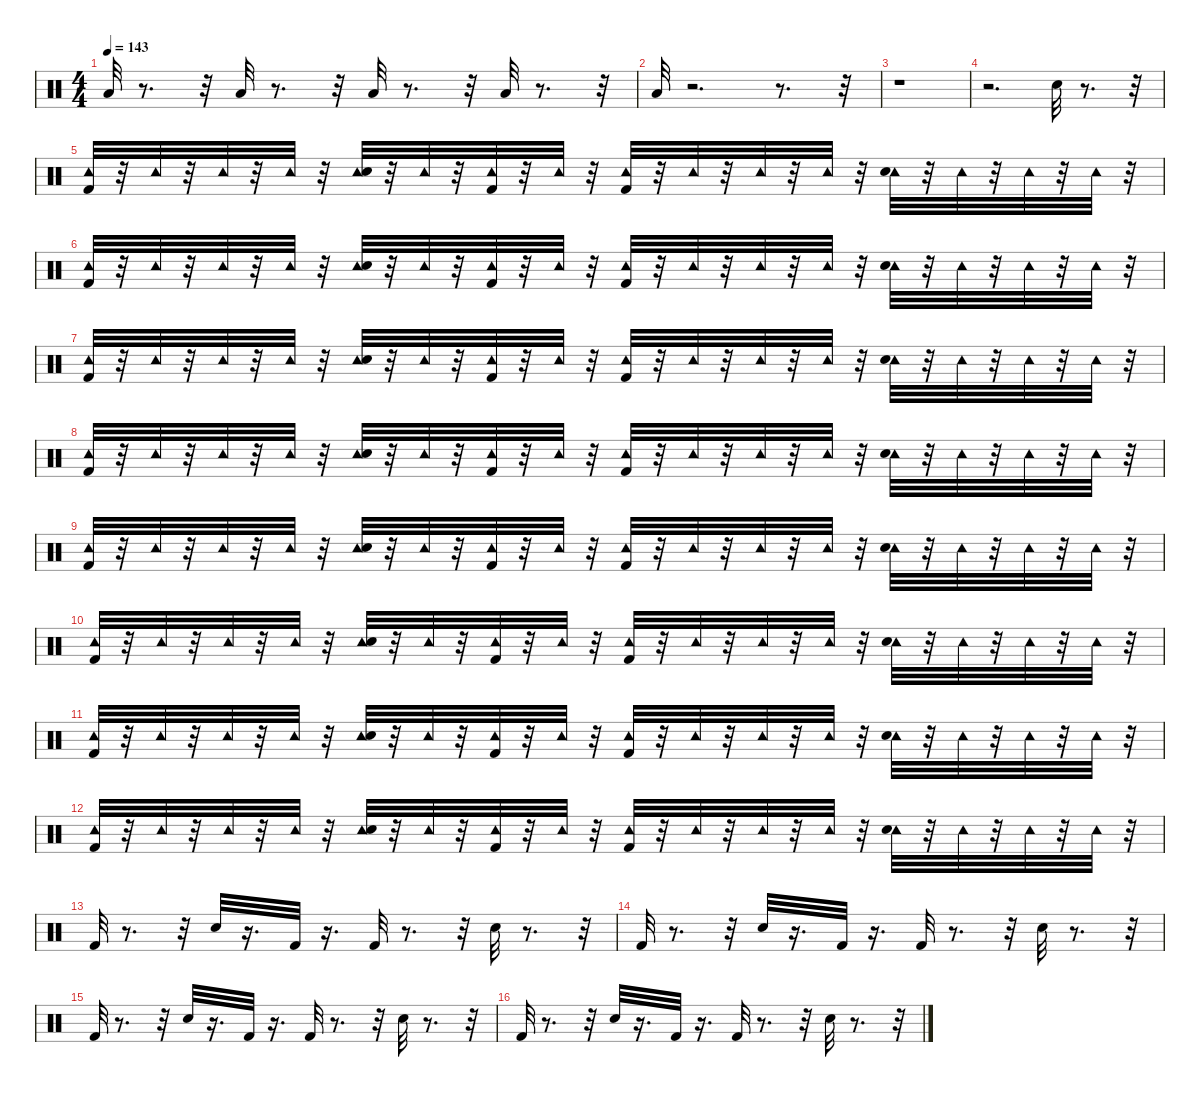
\defaultSystemsLayout 4
\hideDynamics
\bracketExtendMode nobrackets
\singleTrackTrackNamePolicy hidden
\multiTrackTrackNamePolicy hidden
\firstSystemTrackNameMode fullname
\firstSystemTrackNameOrientation horizontal
\otherSystemsTrackNameOrientation horizontal
\track ("Drums" "drm.") {instrument percussion}
\staff {score}
\articulation defaults
\ts (4 4)
\tempo 143
\clef neutral
\ks c "Low Floor Tom (hit)".32{dy ff beam Up}
r.8{d beam Up} r.32{beam Up} "Low Floor Tom (hit)".32{beam Up} r.8{d beam Up} r.32{beam Up} "Low Floor Tom (hit)".32{beam Up} r.8{d beam Up} r.32{beam Up} "Low Floor Tom (hit)".32{beam Up} r.8{d beam Up} r.32{beam Up} |
"Low Floor Tom (hit)".32{dy fff beam Up} r.2{d beam Up} r.8{d beam Up} r.32{beam Up} |
r.1{beam Down} |
r.2{d beam Down} "Snare (hit) 2".32{beam Down} r.8{d beam Down} r.32{beam Down} |
("Kick (hit) 2" "Tambourine (hit)").32{dy ff beam Up} r.32{beam Up} "Tambourine (hit)".32{dy mf beam Up} r.32{beam Up} "Tambourine (hit)".32{beam Up} r.32{beam Up} "Tambourine (hit)".32{beam Up} r.32{beam Up} ("Tambourine (hit)" "Snare (hit) 2").32{dy fff beam Up} r.32{beam Up} "Tambourine (hit)".32{dy mf beam Up} r.32{beam Up} ("Kick (hit) 2" "Tambourine (hit)").32{dy fff beam Up} r.32{beam Up} "Tambourine (hit)".32{dy mf beam Up} r.32{beam Up} ("Kick (hit) 2" "Tambourine (hit)").32{dy ff beam Up} r.32{beam Up} "Tambourine (hit)".32{dy mf beam Up} r.32{beam Up} "Tambourine (hit)".32{dy mp beam Up} r.32{beam Up} "Tambourine (hit)".32{dy mf beam Up} r.32{beam Up} ("Tambourine (hit)" "Snare (hit) 2").32{dy fff beam Down} r.32{beam Down} "Tambourine (hit)".32{dy mf beam Down} r.32{beam Down} "Tambourine (hit)".32{beam Down} r.32{beam Down} "Tambourine (hit)".32{beam Down} r.32{beam Down} |
("Kick (hit) 2" "Tambourine (hit)").32{dy ff beam Up} r.32{beam Up} "Tambourine (hit)".32{dy mf beam Up} r.32{beam Up} "Tambourine (hit)".32{beam Up} r.32{beam Up} "Tambourine (hit)".32{beam Up} r.32{beam Up} ("Tambourine (hit)" "Snare (hit) 2").32{dy fff beam Up} r.32{beam Up} "Tambourine (hit)".32{dy mf beam Up} r.32{beam Up} ("Kick (hit) 2" "Tambourine (hit)").32{dy fff beam Up} r.32{beam Up} "Tambourine (hit)".32{dy mf beam Up} r.32{beam Up} ("Kick (hit) 2" "Tambourine (hit)").32{dy ff beam Up} r.32{beam Up} "Tambourine (hit)".32{dy mf beam Up} r.32{beam Up} "Tambourine (hit)".32{dy mp beam Up} r.32{beam Up} "Tambourine (hit)".32{dy mf beam Up} r.32{beam Up} ("Tambourine (hit)" "Snare (hit) 2").32{dy fff beam Down} r.32{beam Down} "Tambourine (hit)".32{dy mf beam Down} r.32{beam Down} "Tambourine (hit)".32{beam Down} r.32{beam Down} "Tambourine (hit)".32{beam Down} r.32{beam Down} |
("Kick (hit) 2" "Tambourine (hit)").32{dy ff beam Up} r.32{beam Up} "Tambourine (hit)".32{dy mf beam Up} r.32{beam Up} "Tambourine (hit)".32{beam Up} r.32{beam Up} "Tambourine (hit)".32{beam Up} r.32{beam Up} ("Tambourine (hit)" "Snare (hit) 2").32{dy fff beam Up} r.32{beam Up} "Tambourine (hit)".32{dy mf beam Up} r.32{beam Up} ("Kick (hit) 2" "Tambourine (hit)").32{dy fff beam Up} r.32{beam Up} "Tambourine (hit)".32{dy mf beam Up} r.32{beam Up} ("Kick (hit) 2" "Tambourine (hit)").32{dy ff beam Up} r.32{beam Up} "Tambourine (hit)".32{dy mf beam Up} r.32{beam Up} "Tambourine (hit)".32{dy mp beam Up} r.32{beam Up} "Tambourine (hit)".32{dy mf beam Up} r.32{beam Up} ("Tambourine (hit)" "Snare (hit) 2").32{dy fff beam Down} r.32{beam Down} "Tambourine (hit)".32{dy mf beam Down} r.32{beam Down} "Tambourine (hit)".32{beam Down} r.32{beam Down} "Tambourine (hit)".32{beam Down} r.32{beam Down} |
("Kick (hit) 2" "Tambourine (hit)").32{dy ff beam Up} r.32{beam Up} "Tambourine (hit)".32{dy mf beam Up} r.32{beam Up} "Tambourine (hit)".32{beam Up} r.32{beam Up} "Tambourine (hit)".32{beam Up} r.32{beam Up} ("Tambourine (hit)" "Snare (hit) 2").32{dy fff beam Up} r.32{beam Up} "Tambourine (hit)".32{dy mf beam Up} r.32{beam Up} ("Kick (hit) 2" "Tambourine (hit)").32{dy fff beam Up} r.32{beam Up} "Tambourine (hit)".32{dy mf beam Up} r.32{beam Up} ("Kick (hit) 2" "Tambourine (hit)").32{dy ff beam Up} r.32{beam Up} "Tambourine (hit)".32{dy mf beam Up} r.32{beam Up} "Tambourine (hit)".32{dy mp beam Up} r.32{beam Up} "Tambourine (hit)".32{dy mf beam Up} r.32{beam Up} ("Tambourine (hit)" "Snare (hit) 2").32{dy fff beam Down} r.32{beam Down} "Tambourine (hit)".32{dy mf beam Down} r.32{beam Down} "Tambourine (hit)".32{beam Down} r.32{beam Down} "Tambourine (hit)".32{beam Down} r.32{beam Down} |
("Kick (hit) 2" "Tambourine (hit)").32{dy ff beam Up} r.32{beam Up} "Tambourine (hit)".32{dy mf beam Up} r.32{beam Up} "Tambourine (hit)".32{beam Up} r.32{beam Up} "Tambourine (hit)".32{beam Up} r.32{beam Up} ("Tambourine (hit)" "Snare (hit) 2").32{dy fff beam Up} r.32{beam Up} "Tambourine (hit)".32{dy mf beam Up} r.32{beam Up} ("Kick (hit) 2" "Tambourine (hit)").32{dy fff beam Up} r.32{beam Up} "Tambourine (hit)".32{dy mf beam Up} r.32{beam Up} ("Kick (hit) 2" "Tambourine (hit)").32{dy ff beam Up} r.32{beam Up} "Tambourine (hit)".32{dy mf beam Up} r.32{beam Up} "Tambourine (hit)".32{dy mp beam Up} r.32{beam Up} "Tambourine (hit)".32{dy mf beam Up} r.32{beam Up} ("Tambourine (hit)" "Snare (hit) 2").32{dy fff beam Down} r.32{beam Down} "Tambourine (hit)".32{dy mf beam Down} r.32{beam Down} "Tambourine (hit)".32{beam Down} r.32{beam Down} "Tambourine (hit)".32{beam Down} r.32{beam Down} |
("Kick (hit) 2" "Tambourine (hit)").32{dy ff beam Up} r.32{beam Up} "Tambourine (hit)".32{dy mf beam Up} r.32{beam Up} "Tambourine (hit)".32{beam Up} r.32{beam Up} "Tambourine (hit)".32{beam Up} r.32{beam Up} ("Tambourine (hit)" "Snare (hit) 2").32{dy fff beam Up} r.32{beam Up} "Tambourine (hit)".32{dy mf beam Up} r.32{beam Up} ("Kick (hit) 2" "Tambourine (hit)").32{dy fff beam Up} r.32{beam Up} "Tambourine (hit)".32{dy mf beam Up} r.32{beam Up} ("Kick (hit) 2" "Tambourine (hit)").32{dy ff beam Up} r.32{beam Up} "Tambourine (hit)".32{dy mf beam Up} r.32{beam Up} "Tambourine (hit)".32{dy mp beam Up} r.32{beam Up} "Tambourine (hit)".32{dy mf beam Up} r.32{beam Up} ("Tambourine (hit)" "Snare (hit) 2").32{dy fff beam Down} r.32{beam Down} "Tambourine (hit)".32{dy mf beam Down} r.32{beam Down} "Tambourine (hit)".32{beam Down} r.32{beam Down} "Tambourine (hit)".32{beam Down} r.32{beam Down} |
("Kick (hit) 2" "Tambourine (hit)").32{dy ff beam Up} r.32{beam Up} "Tambourine (hit)".32{dy mf beam Up} r.32{beam Up} "Tambourine (hit)".32{beam Up} r.32{beam Up} "Tambourine (hit)".32{beam Up} r.32{beam Up} ("Tambourine (hit)" "Snare (hit) 2").32{dy fff beam Up} r.32{beam Up} "Tambourine (hit)".32{dy mf beam Up} r.32{beam Up} ("Kick (hit) 2" "Tambourine (hit)").32{dy fff beam Up} r.32{beam Up} "Tambourine (hit)".32{dy mf beam Up} r.32{beam Up} ("Kick (hit) 2" "Tambourine (hit)").32{dy ff beam Up} r.32{beam Up} "Tambourine (hit)".32{dy mf beam Up} r.32{beam Up} "Tambourine (hit)".32{dy mp beam Up} r.32{beam Up} "Tambourine (hit)".32{dy mf beam Up} r.32{beam Up} ("Tambourine (hit)" "Snare (hit) 2").32{dy fff beam Down} r.32{beam Down} "Tambourine (hit)".32{dy mf beam Down} r.32{beam Down} "Tambourine (hit)".32{beam Down} r.32{beam Down} "Tambourine (hit)".32{beam Down} r.32{beam Down} |
("Kick (hit) 2" "Tambourine (hit)").32{dy ff beam Up} r.32{beam Up} "Tambourine (hit)".32{dy mf beam Up} r.32{beam Up} "Tambourine (hit)".32{beam Up} r.32{beam Up} "Tambourine (hit)".32{beam Up} r.32{beam Up} ("Tambourine (hit)" "Snare (hit) 2").32{dy fff beam Up} r.32{beam Up} "Tambourine (hit)".32{dy mf beam Up} r.32{beam Up} ("Kick (hit) 2" "Tambourine (hit)").32{dy fff beam Up} r.32{beam Up} "Tambourine (hit)".32{dy mf beam Up} r.32{beam Up} ("Kick (hit) 2" "Tambourine (hit)").32{dy ff beam Up} r.32{beam Up} "Tambourine (hit)".32{dy mf beam Up} r.32{beam Up} "Tambourine (hit)".32{dy mp beam Up} r.32{beam Up} "Tambourine (hit)".32{dy mf beam Up} r.32{beam Up} ("Tambourine (hit)" "Snare (hit) 2").32{dy fff beam Down} r.32{beam Down} "Tambourine (hit)".32{dy mf beam Down} r.32{beam Down} "Tambourine (hit)".32{beam Down} r.32{beam Down} "Tambourine (hit)".32{beam Down} r.32{beam Down} |
"Kick (hit) 2".32{dy ff beam Up} r.8{d beam Up} r.32{beam Up} "Snare (hit) 2".32{beam Up} r.16{d beam Up} "Kick (hit) 2".32{dy fff beam Up} r.16{d beam Up} "Kick (hit) 2".32{dy ff beam Up} r.8{d beam Up} r.32{beam Up} "Snare (hit) 2".32{beam Down} r.8{d beam Down} r.32{beam Down} |
"Kick (hit) 2".32{beam Up} r.8{d beam Up} r.32{beam Up} "Snare (hit) 2".32{beam Up} r.16{d beam Up} "Kick (hit) 2".32{dy fff beam Up} r.16{d beam Up} "Kick (hit) 2".32{dy ff beam Up} r.8{d beam Up} r.32{beam Up} "Snare (hit) 2".32{beam Down} r.8{d beam Down} r.32{beam Down} |
"Kick (hit) 2".32{beam Up} r.8{d beam Up} r.32{beam Up} "Snare (hit) 2".32{beam Up} r.16{d beam Up} "Kick (hit) 2".32{dy fff beam Up} r.16{d beam Up} "Kick (hit) 2".32{dy ff beam Up} r.8{d beam Up} r.32{beam Up} "Snare (hit) 2".32{beam Down} r.8{d beam Down} r.32{beam Down} |
"Kick (hit) 2".32{beam Up} r.8{d beam Up} r.32{beam Up} "Snare (hit) 2".32{beam Up} r.16{d beam Up} "Kick (hit) 2".32{dy fff beam Up} r.16{d beam Up} "Kick (hit) 2".32{dy ff beam Up} r.8{d beam Up} r.32{beam Up} "Snare (hit) 2".32{beam Down} r.8{d beam Down} r.32{beam Down}
